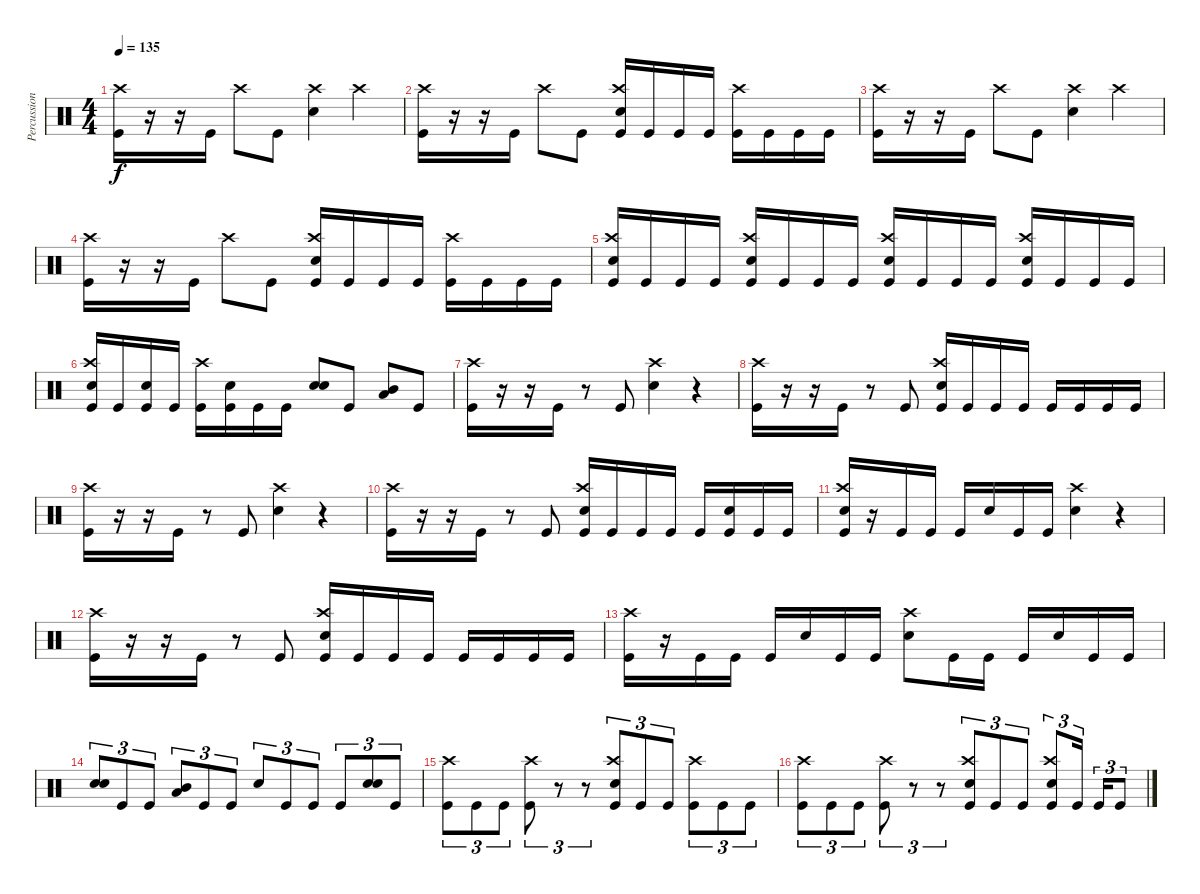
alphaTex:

\track ("Percussion" "Percussion") {instrument percussion}
\staff {score}
\articulation defaults
\ts (4 4)
\tempo 135
\clef neutral
\ks c
("Kick (hit)" "Crash high (hit)").16{dy f} r.16 r.16 "Kick (hit)".16 "Crash high (hit)".8 "Kick (hit)".8 ("Crash high (hit)" "Snare (hit) 2").4 "Crash high (hit)".4 |
("Kick (hit)" "Crash high (hit)").16 r.16 r.16 "Kick (hit)".16 "Crash high (hit)".8 "Kick (hit)".8 ("Crash high (hit)" "Snare (hit) 2" "Kick (hit)").16 "Kick (hit)".16 "Kick (hit)".16 "Kick (hit)".16 ("Crash high (hit)" "Kick (hit)").16 "Kick (hit)".16 "Kick (hit)".16 "Kick (hit)".16 |
("Kick (hit)" "Crash high (hit)").16 r.16 r.16 "Kick (hit)".16 "Crash high (hit)".8 "Kick (hit)".8 ("Crash high (hit)" "Snare (hit) 2").4 "Crash high (hit)".4 |
("Kick (hit)" "Crash high (hit)").16 r.16 r.16 "Kick (hit)".16 "Crash high (hit)".8 "Kick (hit)".8 ("Crash high (hit)" "Snare (hit) 2" "Kick (hit)").16 "Kick (hit)".16 "Kick (hit)".16 "Kick (hit)".16 ("Crash high (hit)" "Kick (hit)").16 "Kick (hit)".16 "Kick (hit)".16 "Kick (hit)".16 |
("Kick (hit)" "Crash high (hit)" "Snare (hit) 2").16 "Kick (hit)".16 "Kick (hit)".16 "Kick (hit)".16 ("Kick (hit)" "Crash high (hit)" "Snare (hit) 2").16 "Kick (hit)".16 "Kick (hit)".16 "Kick (hit)".16 ("Kick (hit)" "Crash high (hit)" "Snare (hit) 2").16 "Kick (hit)".16 "Kick (hit)".16 "Kick (hit)".16 ("Kick (hit)" "Crash high (hit)" "Snare (hit) 2").16 "Kick (hit)".16 "Kick (hit)".16 "Kick (hit)".16 |
("Kick (hit)" "Crash high (hit)" "Snare (hit) 2").16 "Kick (hit)".16 ("Kick (hit)" "Snare (hit) 2").16 "Kick (hit)".16 ("Kick (hit)" "Crash high (hit)").16 ("Kick (hit)" "Snare (hit) 2").16 "Kick (hit)".16 "Kick (hit)".16 ("Snare (hit) 2" "Snare (hit) 2").8 "Kick (hit)".8 ("Mid Tom (hit)" "Low Tom (hit)").8 "Kick (hit)".8 |
("Kick (hit)" "Crash high (hit)").16 r.16 r.16 "Kick (hit)".16 r.8 "Kick (hit)".8 ("Crash high (hit)" "Snare (hit) 2").4 r.4 |
("Kick (hit)" "Crash high (hit)").16 r.16 r.16 "Kick (hit)".16 r.8 "Kick (hit)".8 ("Crash high (hit)" "Snare (hit) 2" "Kick (hit)").16 "Kick (hit)".16 "Kick (hit)".16 "Kick (hit)".16 "Kick (hit)".16 "Kick (hit)".16 "Kick (hit)".16 "Kick (hit)".16 |
("Kick (hit)" "Crash high (hit)").16 r.16 r.16 "Kick (hit)".16 r.8 "Kick (hit)".8 ("Crash high (hit)" "Snare (hit) 2").4 r.4 |
("Kick (hit)" "Crash high (hit)").16 r.16 r.16 "Kick (hit)".16 r.8 "Kick (hit)".8 ("Crash high (hit)" "Snare (hit) 2" "Kick (hit)").16 "Kick (hit)".16 "Kick (hit)".16 "Kick (hit)".16 "Kick (hit)".16 ("Kick (hit)" "Snare (hit) 2").16 "Kick (hit)".16 "Kick (hit)".16 |
("Kick (hit)" "Crash high (hit)" "Snare (hit) 2").16 r.16 "Kick (hit)".16 "Kick (hit)".16 "Kick (hit)".16 "Snare (hit) 2".16 "Kick (hit)".16 "Kick (hit)".16 ("Crash high (hit)" "Snare (hit) 2").4 r.4 |
("Kick (hit)" "Crash high (hit)").16 r.16 r.16 "Kick (hit)".16 r.8 "Kick (hit)".8 ("Crash high (hit)" "Snare (hit) 2" "Kick (hit)").16 "Kick (hit)".16 "Kick (hit)".16 "Kick (hit)".16 "Kick (hit)".16 "Kick (hit)".16 "Kick (hit)".16 "Kick (hit)".16 |
("Kick (hit)" "Crash high (hit)").16 r.16 "Kick (hit)".16 "Kick (hit)".16 "Kick (hit)".16 "Snare (hit) 2".16 "Kick (hit)".16 "Kick (hit)".16 ("Crash high (hit)" "Snare (hit) 2").8 "Kick (hit)".16 "Kick (hit)".16 "Kick (hit)".16 "Snare (hit) 2".16 "Kick (hit)".16 "Kick (hit)".16 |
("Snare (hit) 2" "Snare (hit) 2").8{tu (3 2)} "Kick (hit)".8{tu (3 2)} "Kick (hit)".8{tu (3 2)} ("Mid Tom (hit)" "Low Tom (hit)").8{tu (3 2)} "Kick (hit)".8{tu (3 2)} "Kick (hit)".8{tu (3 2)} "Snare (hit) 2".8{tu (3 2)} "Kick (hit)".8{tu (3 2)} "Kick (hit)".8{tu (3 2)} "Kick (hit)".8{tu (3 2)} ("Snare (hit) 2" "Snare (hit) 2").8{tu (3 2)} "Kick (hit)".8{tu (3 2)} |
("Crash high (hit)" "Kick (hit)").8{tu (3 2)} "Kick (hit)".8{tu (3 2)} "Kick (hit)".8{tu (3 2)} ("Kick (hit)" "Crash high (hit)").8{tu (3 2)} r.8{tu (3 2)} r.8{tu (3 2)} ("Crash high (hit)" "Kick (hit)" "Snare (hit) 2").8{tu (3 2)} "Kick (hit)".8{tu (3 2)} "Kick (hit)".8{tu (3 2)} ("Kick (hit)" "Crash high (hit)").8{tu (3 2)} "Kick (hit)".8{tu (3 2)} "Kick (hit)".8{tu (3 2)} |
("Crash high (hit)" "Kick (hit)").8{tu (3 2)} "Kick (hit)".8{tu (3 2)} "Kick (hit)".8{tu (3 2)} ("Kick (hit)" "Crash high (hit)").8{tu (3 2)} r.8{tu (3 2)} r.8{tu (3 2)} ("Crash high (hit)" "Kick (hit)" "Snare (hit) 2").8{tu (3 2)} "Kick (hit)".8{tu (3 2)} "Kick (hit)".8{tu (3 2)} ("Kick (hit)" "Crash high (hit)" "Snare (hit) 2").8{tu (3 2)} "Kick (hit)".16{tu (3 2) beam splitsecondary} "Kick (hit)".16{tu (3 2)} "Kick (hit)".8{tu (3 2)}
